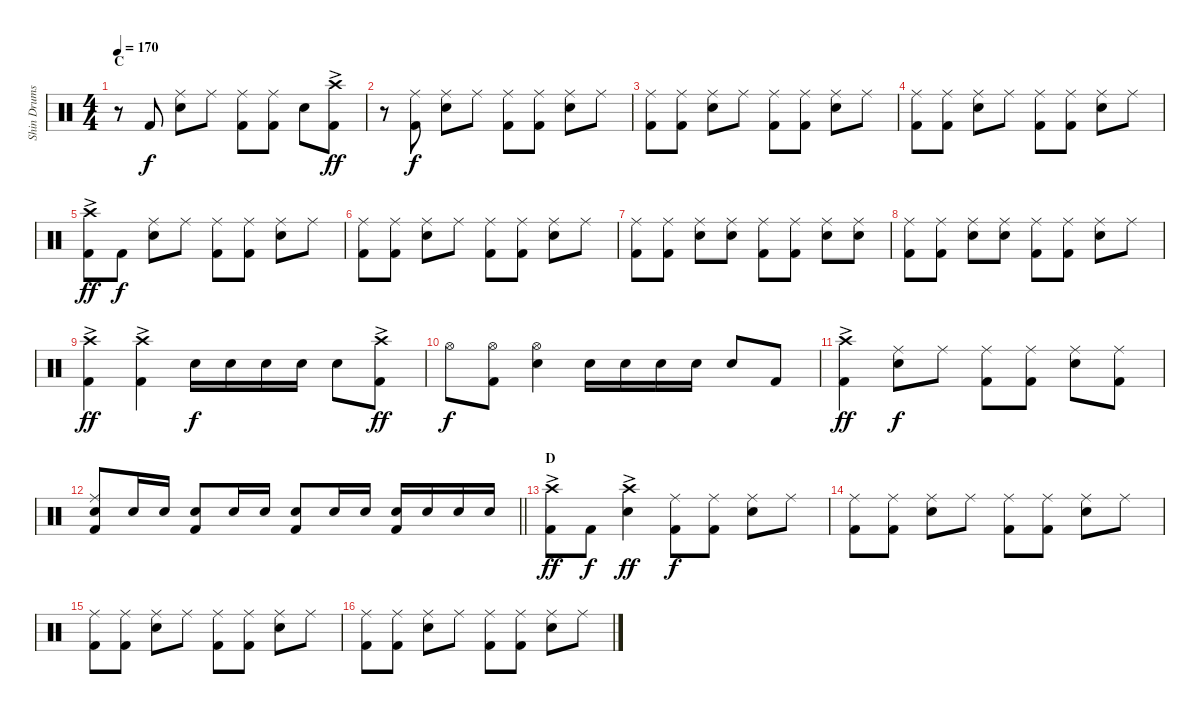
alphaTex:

\track ("Shin Drums" "Shin Drums") {instrument percussion}
\staff {score}
\articulation defaults
\ts (4 4)
\section ("" "C")
\tempo 170
\clef neutral
\ks c
r.8{dy ff} "Kick (hit) 2".8{dy f} ("Ride (middle)" "Snare (hit) 2").8 "Ride (middle)".8 ("Ride (middle)" "Kick (hit) 2").8 ("Ride (middle)" "Kick (hit) 2").8 "Snare (hit) 2".8 ("Crash high (hit)"{ac} "Kick (hit) 2").8{dy ff} |
r.8 ("Ride (middle)" "Kick (hit) 2").8{dy f} ("Ride (middle)" "Snare (hit) 2").8 "Ride (middle)".8 ("Ride (middle)" "Kick (hit) 2").8 ("Ride (middle)" "Kick (hit) 2").8 ("Ride (middle)" "Snare (hit) 2").8 "Ride (middle)".8 |
("Ride (middle)" "Kick (hit) 2").8 ("Ride (middle)" "Kick (hit) 2").8 ("Ride (middle)" "Snare (hit) 2").8 "Ride (middle)".8 ("Ride (middle)" "Kick (hit) 2").8 ("Ride (middle)" "Kick (hit) 2").8 ("Ride (middle)" "Snare (hit) 2").8 "Ride (middle)".8 |
("Ride (middle)" "Kick (hit) 2").8 ("Ride (middle)" "Kick (hit) 2").8 ("Ride (middle)" "Snare (hit) 2").8 "Ride (middle)".8 ("Ride (middle)" "Kick (hit) 2").8 ("Ride (middle)" "Kick (hit) 2").8 ("Ride (middle)" "Snare (hit) 2").8 "Ride (middle)".8 |
("Crash high (hit)"{ac} "Kick (hit) 2").8{dy ff} "Kick (hit) 2".8{dy f} ("Ride (middle)" "Snare (hit) 2").8 "Ride (middle)".8 ("Ride (middle)" "Kick (hit) 2").8 ("Ride (middle)" "Kick (hit) 2").8 ("Ride (middle)" "Snare (hit) 2").8 "Ride (middle)".8 |
("Ride (middle)" "Kick (hit) 2").8 ("Ride (middle)" "Kick (hit) 2").8 ("Ride (middle)" "Snare (hit) 2").8 "Ride (middle)".8 ("Ride (middle)" "Kick (hit) 2").8 ("Ride (middle)" "Kick (hit) 2").8 ("Ride (middle)" "Snare (hit) 2").8 "Ride (middle)".8 |
("Ride (middle)" "Kick (hit) 2").8 ("Ride (middle)" "Kick (hit) 2").8 ("Ride (middle)" "Snare (hit) 2").8 ("Ride (middle)" "Snare (hit) 2").8 ("Ride (middle)" "Kick (hit) 2").8 ("Ride (middle)" "Kick (hit) 2").8 ("Ride (middle)" "Snare (hit) 2").8 ("Ride (middle)" "Snare (hit) 2").8 |
("Ride (middle)" "Kick (hit) 2").8 ("Ride (middle)" "Kick (hit) 2").8 ("Ride (middle)" "Snare (hit) 2").8 ("Ride (middle)" "Snare (hit) 2").8 ("Ride (middle)" "Kick (hit) 2").8 ("Ride (middle)" "Kick (hit) 2").8 ("Ride (middle)" "Snare (hit) 2").8 "Ride (middle)".8 |
("Crash high (hit)"{ac} "Kick (hit) 2").4{dy ff} ("Crash high (hit)"{ac} "Kick (hit) 2").4 "Snare (hit) 2".16{dy f} "Snare (hit) 2".16 "Snare (hit) 2".16 "Snare (hit) 2".16 "Snare (hit) 2".8 ("Crash high (hit)"{ac} "Kick (hit) 2").8{dy ff} |
"Hi-Hat (open)".8{dy f} ("Hi-Hat (open)" "Kick (hit) 2").8 ("Hi-Hat (open)" "Snare (hit) 2").4 "Snare (hit) 2".16 "Snare (hit) 2".16 "Snare (hit) 2".16 "Snare (hit) 2".16 "Snare (hit) 2".8 "Kick (hit) 2".8 |
("Crash high (hit)"{ac} "Kick (hit) 2").4{dy ff} ("Ride (middle)" "Snare (hit) 2").8{dy f} "Ride (middle)".8 ("Ride (middle)" "Kick (hit) 2").8 ("Ride (middle)" "Kick (hit) 2").8 ("Ride (middle)" "Snare (hit) 2").8 ("Ride (middle)" "Kick (hit) 2").8 |
\barLineRight lightlight
("Ride (middle)" "Snare (hit) 2" "Kick (hit) 2").8 "Snare (hit) 2".16 "Snare (hit) 2".16 ("Snare (hit) 2" "Kick (hit) 2").8 "Snare (hit) 2".16 "Snare (hit) 2".16 ("Snare (hit) 2" "Kick (hit) 2").8 "Snare (hit) 2".16 "Snare (hit) 2".16 ("Snare (hit) 2" "Kick (hit) 2").16 "Snare (hit) 2".16 "Snare (hit) 2".16 "Snare (hit) 2".16 |
\section ("" "D")
("Crash high (hit)"{ac} "Kick (hit) 2").8{dy ff} "Kick (hit) 2".8{dy f} ("Crash high (hit)"{ac} "Snare (hit) 2").4{dy ff} ("Ride (middle)" "Kick (hit) 2").8{dy f} ("Ride (middle)" "Kick (hit) 2").8 ("Ride (middle)" "Snare (hit) 2").8 "Ride (middle)".8 |
("Ride (middle)" "Kick (hit) 2").8 ("Ride (middle)" "Kick (hit) 2").8 ("Ride (middle)" "Snare (hit) 2").8 "Ride (middle)".8 ("Ride (middle)" "Kick (hit) 2").8 ("Ride (middle)" "Kick (hit) 2").8 ("Ride (middle)" "Snare (hit) 2").8 "Ride (middle)".8 |
("Ride (middle)" "Kick (hit) 2").8 ("Ride (middle)" "Kick (hit) 2").8 ("Ride (middle)" "Snare (hit) 2").8 "Ride (middle)".8 ("Ride (middle)" "Kick (hit) 2").8 ("Ride (middle)" "Kick (hit) 2").8 ("Ride (middle)" "Snare (hit) 2").8 "Ride (middle)".8 |
("Ride (middle)" "Kick (hit) 2").8 ("Ride (middle)" "Kick (hit) 2").8 ("Ride (middle)" "Snare (hit) 2").8 "Ride (middle)".8 ("Ride (middle)" "Kick (hit) 2").8 ("Ride (middle)" "Kick (hit) 2").8 ("Ride (middle)" "Snare (hit) 2").8 "Ride (middle)".8
